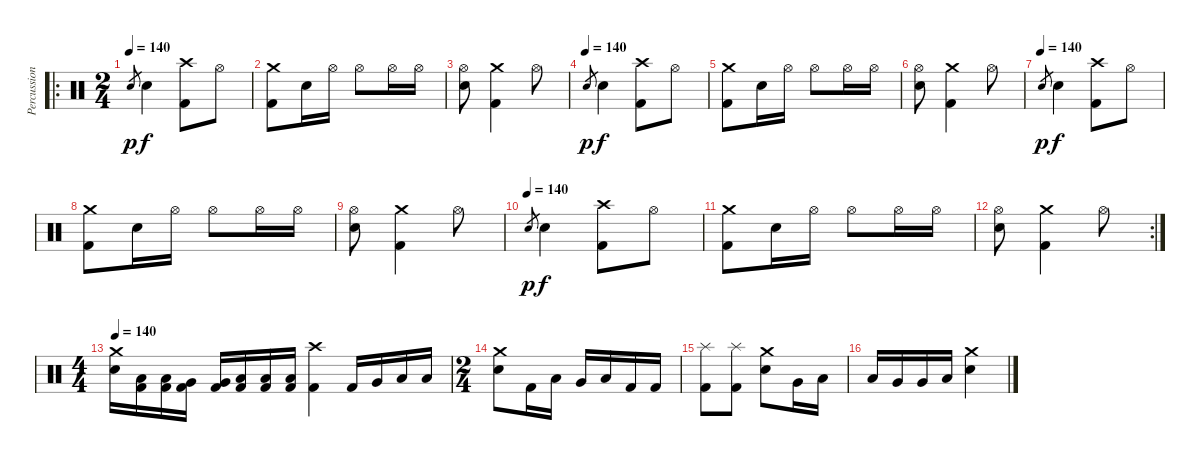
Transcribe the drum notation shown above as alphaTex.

\track ("Percussion" "Percussion") {instrument percussion}
\staff {score}
\articulation defaults
\ro
\ts (2 4)
\tempo 140
\clef neutral
\ks c "Electric Snare (hit)".8{gr dy p} "Electric Snare (hit)".4{dy f}
("Crash high (hit)" "Kick (hit) 2").8 "Hi-Hat (open)".8 |
("Crash medium (hit)" "Kick (hit) 2").8 "Electric Snare (hit)".16 "Hi-Hat (open)".16 "Hi-Hat (open)".8 "Hi-Hat (open)".16 "Hi-Hat (open)".16 |
("Hi-Hat (open)" "Electric Snare (hit)").8 ("Crash medium (hit)" "Kick (hit) 2").4 "Hi-Hat (open)".8 |
\tempo (140)
"Electric Snare (hit)".8{gr dy p} "Electric Snare (hit)".4{dy f} ("Crash high (hit)" "Kick (hit) 2").8 "Hi-Hat (open)".8 |
("Crash medium (hit)" "Kick (hit) 2").8 "Electric Snare (hit)".16 "Hi-Hat (open)".16 "Hi-Hat (open)".8 "Hi-Hat (open)".16 "Hi-Hat (open)".16 |
("Hi-Hat (open)" "Electric Snare (hit)").8 ("Crash medium (hit)" "Kick (hit) 2").4 "Hi-Hat (open)".8 |
\tempo (140)
"Electric Snare (hit)".8{gr dy p} "Electric Snare (hit)".4{dy f} ("Crash high (hit)" "Kick (hit) 2").8 "Hi-Hat (open)".8 |
("Crash medium (hit)" "Kick (hit) 2").8 "Electric Snare (hit)".16 "Hi-Hat (open)".16 "Hi-Hat (open)".8 "Hi-Hat (open)".16 "Hi-Hat (open)".16 |
("Hi-Hat (open)" "Electric Snare (hit)").8 ("Crash medium (hit)" "Kick (hit) 2").4 "Hi-Hat (open)".8 |
\tempo (140)
"Electric Snare (hit)".8{gr dy p} "Electric Snare (hit)".4{dy f} ("Crash high (hit)" "Kick (hit) 2").8 "Hi-Hat (open)".8 |
("Crash medium (hit)" "Kick (hit) 2").8 "Electric Snare (hit)".16 "Hi-Hat (open)".16 "Hi-Hat (open)".8 "Hi-Hat (open)".16 "Hi-Hat (open)".16 |
\rc 2
("Hi-Hat (open)" "Electric Snare (hit)").8 ("Crash medium (hit)" "Kick (hit) 2").4 "Hi-Hat (open)".8 |
\ts (4 4)
\tempo 140
("Crash medium (hit)" "Electric Snare (hit)").16 ("Low Tom (hit)" "Kick (hit) 2").16 ("Low Tom (hit)" "Kick (hit) 2").16 ("Very Low Tom (hit)" "Kick (hit) 2").16 ("Very Low Tom (hit)" "Kick (hit) 2").16 ("Low Floor Tom (hit)" "Kick (hit) 2").16 ("Low Floor Tom (hit)" "Kick (hit) 2").16 ("Low Floor Tom (hit)" "Kick (hit) 2").16 ("Crash high (hit)" "Kick (hit) 2").4 "Kick (hit) 2".16 "Very Low Tom (hit)".16 "Low Floor Tom (hit)".16 "Low Floor Tom (hit)".16 |
\ts (2 4)
("Crash medium (hit)" "Electric Snare (hit)").8 "Kick (hit) 2".16 "Low Floor Tom (hit)".16 "Very Low Tom (hit)".16 "Low Floor Tom (hit)".16 "Kick (hit) 2".16 "Kick (hit) 2".16 |
("Splash (hit)" "Kick (hit) 2").8 ("Splash (hit)" "Kick (hit) 2").8 ("Crash medium (hit)" "Electric Snare (hit)").8 "Very Low Tom (hit)".16 "Low Floor Tom (hit)".16 |
"Low Floor Tom (hit)".16 "Very Low Tom (hit)".16 "Very Low Tom (hit)".16 "Low Floor Tom (hit)".16 ("Crash medium (hit)" "Electric Snare (hit)").4
